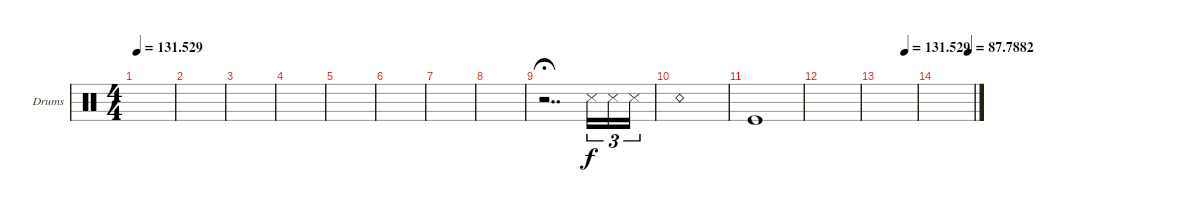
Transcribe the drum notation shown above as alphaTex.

\defaultSystemsLayout 4
\bracketExtendMode groupsimilarinstruments
\firstSystemTrackNameOrientation horizontal
\otherSystemsTrackNameOrientation horizontal
\track ("Drumkit" "Drums") {instrument percussion}
\staff {score}
\articulation defaults
\ts (4 4)
\tempo
131.529
\accidentals auto
\clef neutral
\ottava regular
\simile none
\ks c
|
|
|
|
|
|
|
|
r.2{dd fermata (medium 0.5)} "Snare (side stick) 3".16{tu (3 2)} "Snare (side stick) 3".16{tu (3 2)} "Snare (side stick) 3".16{tu (3 2)} |
"Snare (rim shot)".1 |
"Kick (hit)".1 |
|
\scale
0.298899
\tempo (131.529 0.6875)
|
\scale
0.571929
\tempo (87.7882 0.8625)
|
\scale
0.129176
